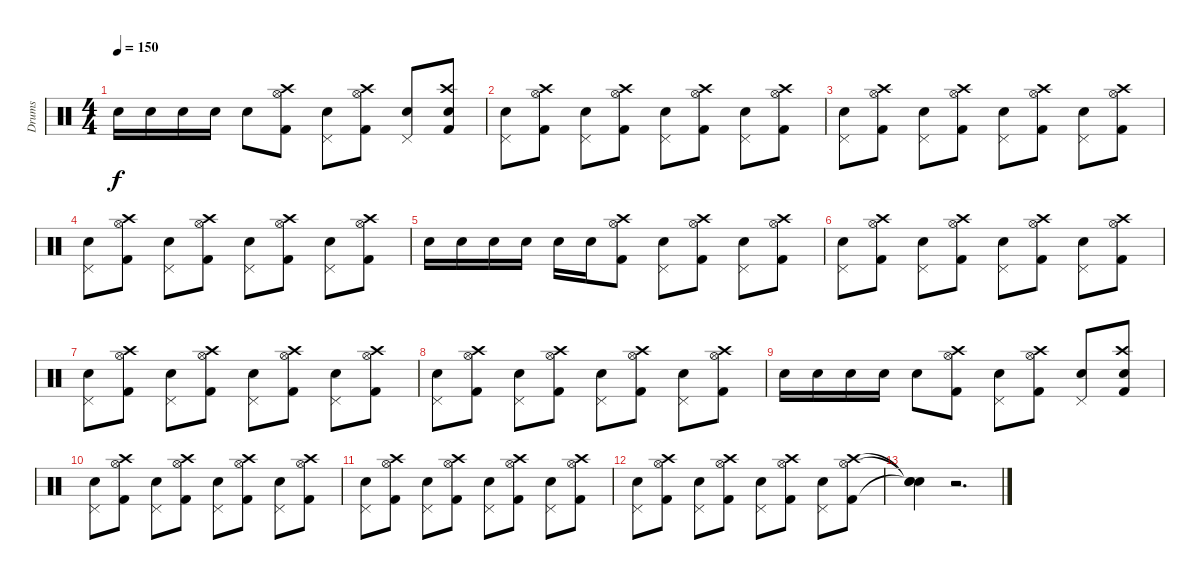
\track ("Drums" "Drums") {instrument percussion}
\staff {score}
\articulation defaults
\ts (4 4)
\tempo 150
\clef neutral
\ks c "Snare (hit) 2".16{dy f} "Snare (hit) 2".16 "Snare (hit) 2".16 "Snare (hit) 2".16 "Snare (hit) 2".8
("Crash high (hit)" "Hi-Hat (open)" "Kick (hit) 2").8 ("Pedal Hi-Hat (hit)" "Snare (hit) 2").8 ("Crash high (hit)" "Hi-Hat (open)" "Kick (hit) 2").8 ("Pedal Hi-Hat (hit)" "Snare (hit) 2").8 ("Crash high (hit)" "Snare (hit) 2" "Kick (hit) 2").8 |
("Pedal Hi-Hat (hit)" "Snare (hit) 2").8 ("Crash high (hit)" "Hi-Hat (open)" "Kick (hit) 2").8 ("Pedal Hi-Hat (hit)" "Snare (hit) 2").8 ("Crash high (hit)" "Hi-Hat (open)" "Kick (hit) 2").8 ("Pedal Hi-Hat (hit)" "Snare (hit) 2").8 ("Crash high (hit)" "Hi-Hat (open)" "Kick (hit) 2").8 ("Pedal Hi-Hat (hit)" "Snare (hit) 2").8 ("Crash high (hit)" "Hi-Hat (open)" "Kick (hit) 2").8 |
("Pedal Hi-Hat (hit)" "Snare (hit) 2").8 ("Crash high (hit)" "Hi-Hat (open)" "Kick (hit) 2").8 ("Pedal Hi-Hat (hit)" "Snare (hit) 2").8 ("Crash high (hit)" "Hi-Hat (open)" "Kick (hit) 2").8 ("Pedal Hi-Hat (hit)" "Snare (hit) 2").8 ("Crash high (hit)" "Hi-Hat (open)" "Kick (hit) 2").8 ("Pedal Hi-Hat (hit)" "Snare (hit) 2").8 ("Crash high (hit)" "Hi-Hat (open)" "Kick (hit) 2").8 |
("Pedal Hi-Hat (hit)" "Snare (hit) 2").8 ("Crash high (hit)" "Hi-Hat (open)" "Kick (hit) 2").8 ("Pedal Hi-Hat (hit)" "Snare (hit) 2").8 ("Crash high (hit)" "Hi-Hat (open)" "Kick (hit) 2").8 ("Pedal Hi-Hat (hit)" "Snare (hit) 2").8 ("Crash high (hit)" "Hi-Hat (open)" "Kick (hit) 2").8 ("Pedal Hi-Hat (hit)" "Snare (hit) 2").8 ("Crash high (hit)" "Hi-Hat (open)" "Kick (hit) 2").8 |
"Snare (hit) 2".16 "Snare (hit) 2".16 "Snare (hit) 2".16 "Snare (hit) 2".16 "Snare (hit) 2".16 "Snare (hit) 2".16 ("Crash high (hit)" "Hi-Hat (open)" "Kick (hit) 2").8 ("Pedal Hi-Hat (hit)" "Snare (hit) 2").8 ("Crash high (hit)" "Hi-Hat (open)" "Kick (hit) 2").8 ("Pedal Hi-Hat (hit)" "Snare (hit) 2").8 ("Crash high (hit)" "Hi-Hat (open)" "Kick (hit) 2").8 |
("Pedal Hi-Hat (hit)" "Snare (hit) 2").8 ("Crash high (hit)" "Hi-Hat (open)" "Kick (hit) 2").8 ("Pedal Hi-Hat (hit)" "Snare (hit) 2").8 ("Crash high (hit)" "Hi-Hat (open)" "Kick (hit) 2").8 ("Pedal Hi-Hat (hit)" "Snare (hit) 2").8 ("Crash high (hit)" "Hi-Hat (open)" "Kick (hit) 2").8 ("Pedal Hi-Hat (hit)" "Snare (hit) 2").8 ("Crash high (hit)" "Hi-Hat (open)" "Kick (hit) 2").8 |
("Pedal Hi-Hat (hit)" "Snare (hit) 2").8 ("Crash high (hit)" "Hi-Hat (open)" "Kick (hit) 2").8 ("Pedal Hi-Hat (hit)" "Snare (hit) 2").8 ("Crash high (hit)" "Hi-Hat (open)" "Kick (hit) 2").8 ("Pedal Hi-Hat (hit)" "Snare (hit) 2").8 ("Crash high (hit)" "Hi-Hat (open)" "Kick (hit) 2").8 ("Pedal Hi-Hat (hit)" "Snare (hit) 2").8 ("Crash high (hit)" "Hi-Hat (open)" "Kick (hit) 2").8 |
("Pedal Hi-Hat (hit)" "Snare (hit) 2").8 ("Crash high (hit)" "Hi-Hat (open)" "Kick (hit) 2").8 ("Pedal Hi-Hat (hit)" "Snare (hit) 2").8 ("Crash high (hit)" "Hi-Hat (open)" "Kick (hit) 2").8 ("Pedal Hi-Hat (hit)" "Snare (hit) 2").8 ("Crash high (hit)" "Hi-Hat (open)" "Kick (hit) 2").8 ("Pedal Hi-Hat (hit)" "Snare (hit) 2").8 ("Crash high (hit)" "Hi-Hat (open)" "Kick (hit) 2").8 |
"Snare (hit) 2".16 "Snare (hit) 2".16 "Snare (hit) 2".16 "Snare (hit) 2".16 "Snare (hit) 2".8 ("Crash high (hit)" "Hi-Hat (open)" "Kick (hit) 2").8 ("Pedal Hi-Hat (hit)" "Snare (hit) 2").8 ("Crash high (hit)" "Hi-Hat (open)" "Kick (hit) 2").8 ("Pedal Hi-Hat (hit)" "Snare (hit) 2").8 ("Crash high (hit)" "Snare (hit) 2" "Kick (hit) 2").8 |
("Pedal Hi-Hat (hit)" "Snare (hit) 2").8 ("Crash high (hit)" "Hi-Hat (open)" "Kick (hit) 2").8 ("Pedal Hi-Hat (hit)" "Snare (hit) 2").8 ("Crash high (hit)" "Hi-Hat (open)" "Kick (hit) 2").8 ("Pedal Hi-Hat (hit)" "Snare (hit) 2").8 ("Crash high (hit)" "Hi-Hat (open)" "Kick (hit) 2").8 ("Pedal Hi-Hat (hit)" "Snare (hit) 2").8 ("Crash high (hit)" "Hi-Hat (open)" "Kick (hit) 2").8 |
("Pedal Hi-Hat (hit)" "Snare (hit) 2").8 ("Crash high (hit)" "Hi-Hat (open)" "Kick (hit) 2").8 ("Pedal Hi-Hat (hit)" "Snare (hit) 2").8 ("Crash high (hit)" "Hi-Hat (open)" "Kick (hit) 2").8 ("Pedal Hi-Hat (hit)" "Snare (hit) 2").8 ("Crash high (hit)" "Hi-Hat (open)" "Kick (hit) 2").8 ("Pedal Hi-Hat (hit)" "Snare (hit) 2").8 ("Crash high (hit)" "Hi-Hat (open)" "Kick (hit) 2").8 |
("Pedal Hi-Hat (hit)" "Snare (hit) 2").8 ("Crash high (hit)" "Hi-Hat (open)" "Kick (hit) 2").8 ("Pedal Hi-Hat (hit)" "Snare (hit) 2").8 ("Crash high (hit)" "Hi-Hat (open)" "Kick (hit) 2").8 ("Pedal Hi-Hat (hit)" "Snare (hit) 2").8 ("Crash high (hit)" "Hi-Hat (open)" "Kick (hit) 2").8 ("Pedal Hi-Hat (hit)" "Snare (hit) 2").8 ("Crash high (hit)" "Hi-Hat (open)" "Kick (hit) 2").8 |
("Snare (hit)"{t} "Snare (hit)"{t} "Snare (hit)"{t}).4 r.2{d}
